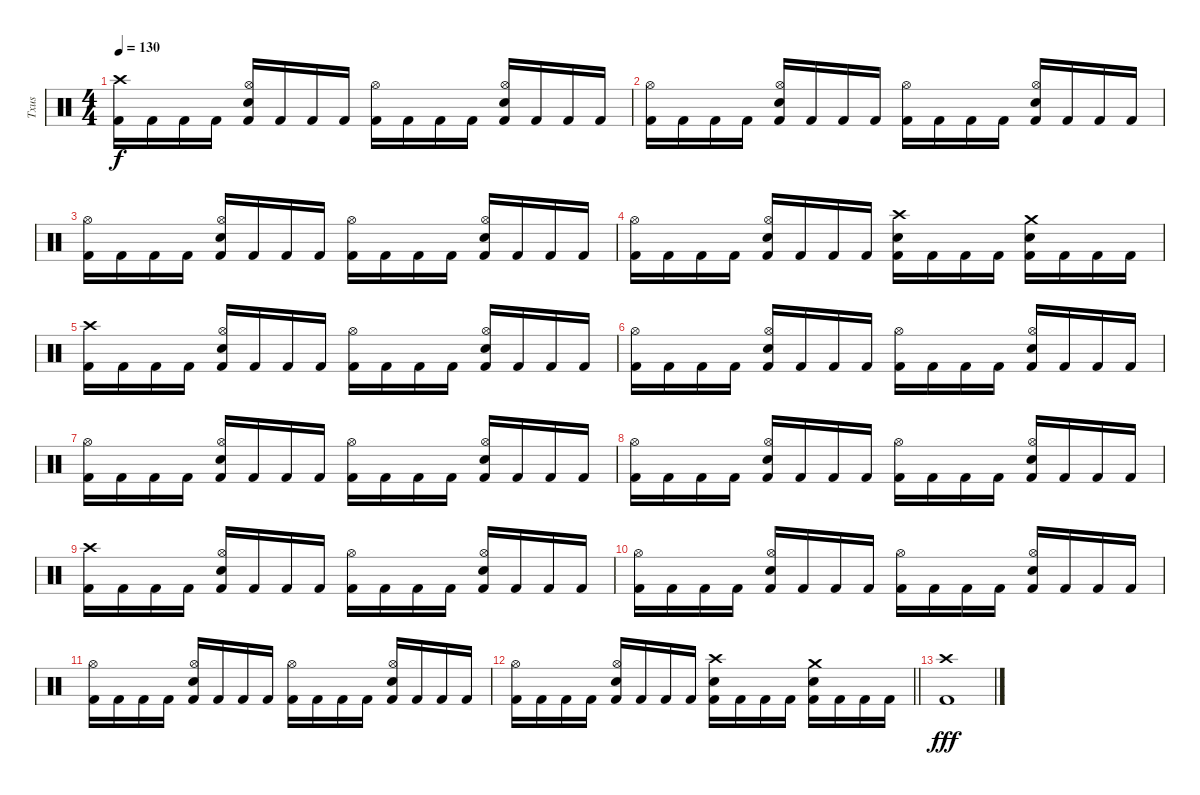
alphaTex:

\track ("Txus" "Txus") {instrument percussion}
\staff {score}
\articulation defaults
\ts (4 4)
\tempo 130
\clef neutral
\ks c
("Crash high (hit)" "Kick (hit) 2").16{dy f} "Kick (hit) 2".16 "Kick (hit) 2".16 "Kick (hit) 2".16 ("Hi-Hat (open)" "Electric Snare (hit)" "Kick (hit) 2").16 "Kick (hit) 2".16 "Kick (hit) 2".16 "Kick (hit) 2".16 ("Hi-Hat (open)" "Kick (hit) 2").16 "Kick (hit) 2".16 "Kick (hit) 2".16 "Kick (hit) 2".16 ("Hi-Hat (open)" "Electric Snare (hit)" "Kick (hit) 2").16 "Kick (hit) 2".16 "Kick (hit) 2".16 "Kick (hit) 2".16 |
("Hi-Hat (open)" "Kick (hit) 2").16 "Kick (hit) 2".16 "Kick (hit) 2".16 "Kick (hit) 2".16 ("Hi-Hat (open)" "Electric Snare (hit)" "Kick (hit) 2").16 "Kick (hit) 2".16 "Kick (hit) 2".16 "Kick (hit) 2".16 ("Hi-Hat (open)" "Kick (hit) 2").16 "Kick (hit) 2".16 "Kick (hit) 2".16 "Kick (hit) 2".16 ("Hi-Hat (open)" "Electric Snare (hit)" "Kick (hit) 2").16 "Kick (hit) 2".16 "Kick (hit) 2".16 "Kick (hit) 2".16 |
("Hi-Hat (open)" "Kick (hit) 2").16 "Kick (hit) 2".16 "Kick (hit) 2".16 "Kick (hit) 2".16 ("Hi-Hat (open)" "Electric Snare (hit)" "Kick (hit) 2").16 "Kick (hit) 2".16 "Kick (hit) 2".16 "Kick (hit) 2".16 ("Hi-Hat (open)" "Kick (hit) 2").16 "Kick (hit) 2".16 "Kick (hit) 2".16 "Kick (hit) 2".16 ("Hi-Hat (open)" "Electric Snare (hit)" "Kick (hit) 2").16 "Kick (hit) 2".16 "Kick (hit) 2".16 "Kick (hit) 2".16 |
("Hi-Hat (open)" "Kick (hit) 2").16 "Kick (hit) 2".16 "Kick (hit) 2".16 "Kick (hit) 2".16 ("Hi-Hat (open)" "Electric Snare (hit)" "Kick (hit) 2").16 "Kick (hit) 2".16 "Kick (hit) 2".16 "Kick (hit) 2".16 ("Crash high (hit)" "Electric Snare (hit)" "Kick (hit) 2").16 "Kick (hit) 2".16 "Kick (hit) 2".16 "Kick (hit) 2".16 ("Crash medium (hit)" "Electric Snare (hit)" "Kick (hit) 2").16 "Kick (hit) 2".16 "Kick (hit) 2".16 "Kick (hit) 2".16 |
("Crash high (hit)" "Kick (hit) 2").16 "Kick (hit) 2".16 "Kick (hit) 2".16 "Kick (hit) 2".16 ("Hi-Hat (open)" "Electric Snare (hit)" "Kick (hit) 2").16 "Kick (hit) 2".16 "Kick (hit) 2".16 "Kick (hit) 2".16 ("Hi-Hat (open)" "Kick (hit) 2").16 "Kick (hit) 2".16 "Kick (hit) 2".16 "Kick (hit) 2".16 ("Hi-Hat (open)" "Electric Snare (hit)" "Kick (hit) 2").16 "Kick (hit) 2".16 "Kick (hit) 2".16 "Kick (hit) 2".16 |
("Hi-Hat (open)" "Kick (hit) 2").16 "Kick (hit) 2".16 "Kick (hit) 2".16 "Kick (hit) 2".16 ("Hi-Hat (open)" "Electric Snare (hit)" "Kick (hit) 2").16 "Kick (hit) 2".16 "Kick (hit) 2".16 "Kick (hit) 2".16 ("Hi-Hat (open)" "Kick (hit) 2").16 "Kick (hit) 2".16 "Kick (hit) 2".16 "Kick (hit) 2".16 ("Hi-Hat (open)" "Electric Snare (hit)" "Kick (hit) 2").16 "Kick (hit) 2".16 "Kick (hit) 2".16 "Kick (hit) 2".16 |
("Hi-Hat (open)" "Kick (hit) 2").16 "Kick (hit) 2".16 "Kick (hit) 2".16 "Kick (hit) 2".16 ("Hi-Hat (open)" "Electric Snare (hit)" "Kick (hit) 2").16 "Kick (hit) 2".16 "Kick (hit) 2".16 "Kick (hit) 2".16 ("Hi-Hat (open)" "Kick (hit) 2").16 "Kick (hit) 2".16 "Kick (hit) 2".16 "Kick (hit) 2".16 ("Hi-Hat (open)" "Electric Snare (hit)" "Kick (hit) 2").16 "Kick (hit) 2".16 "Kick (hit) 2".16 "Kick (hit) 2".16 |
("Hi-Hat (open)" "Kick (hit) 2").16 "Kick (hit) 2".16 "Kick (hit) 2".16 "Kick (hit) 2".16 ("Hi-Hat (open)" "Electric Snare (hit)" "Kick (hit) 2").16 "Kick (hit) 2".16 "Kick (hit) 2".16 "Kick (hit) 2".16 ("Hi-Hat (open)" "Kick (hit) 2").16 "Kick (hit) 2".16 "Kick (hit) 2".16 "Kick (hit) 2".16 ("Hi-Hat (open)" "Electric Snare (hit)" "Kick (hit) 2").16 "Kick (hit) 2".16 "Kick (hit) 2".16 "Kick (hit) 2".16 |
("Crash high (hit)" "Kick (hit) 2").16 "Kick (hit) 2".16 "Kick (hit) 2".16 "Kick (hit) 2".16 ("Hi-Hat (open)" "Electric Snare (hit)" "Kick (hit) 2").16 "Kick (hit) 2".16 "Kick (hit) 2".16 "Kick (hit) 2".16 ("Hi-Hat (open)" "Kick (hit) 2").16 "Kick (hit) 2".16 "Kick (hit) 2".16 "Kick (hit) 2".16 ("Hi-Hat (open)" "Electric Snare (hit)" "Kick (hit) 2").16 "Kick (hit) 2".16 "Kick (hit) 2".16 "Kick (hit) 2".16 |
("Hi-Hat (open)" "Kick (hit) 2").16 "Kick (hit) 2".16 "Kick (hit) 2".16 "Kick (hit) 2".16 ("Hi-Hat (open)" "Electric Snare (hit)" "Kick (hit) 2").16 "Kick (hit) 2".16 "Kick (hit) 2".16 "Kick (hit) 2".16 ("Hi-Hat (open)" "Kick (hit) 2").16 "Kick (hit) 2".16 "Kick (hit) 2".16 "Kick (hit) 2".16 ("Hi-Hat (open)" "Electric Snare (hit)" "Kick (hit) 2").16 "Kick (hit) 2".16 "Kick (hit) 2".16 "Kick (hit) 2".16 |
("Hi-Hat (open)" "Kick (hit) 2").16 "Kick (hit) 2".16 "Kick (hit) 2".16 "Kick (hit) 2".16 ("Hi-Hat (open)" "Electric Snare (hit)" "Kick (hit) 2").16 "Kick (hit) 2".16 "Kick (hit) 2".16 "Kick (hit) 2".16 ("Hi-Hat (open)" "Kick (hit) 2").16 "Kick (hit) 2".16 "Kick (hit) 2".16 "Kick (hit) 2".16 ("Hi-Hat (open)" "Electric Snare (hit)" "Kick (hit) 2").16 "Kick (hit) 2".16 "Kick (hit) 2".16 "Kick (hit) 2".16 |
\barLineRight lightlight
("Hi-Hat (open)" "Kick (hit) 2").16 "Kick (hit) 2".16 "Kick (hit) 2".16 "Kick (hit) 2".16 ("Hi-Hat (open)" "Electric Snare (hit)" "Kick (hit) 2").16 "Kick (hit) 2".16 "Kick (hit) 2".16 "Kick (hit) 2".16 ("Crash high (hit)" "Electric Snare (hit)" "Kick (hit) 2").16 "Kick (hit) 2".16 "Kick (hit) 2".16 "Kick (hit) 2".16 ("Crash medium (hit)" "Electric Snare (hit)" "Kick (hit) 2").16 "Kick (hit) 2".16 "Kick (hit) 2".16 "Kick (hit) 2".16 |
("Crash high (hit)" "Kick (hit) 2").1{dy fff}
